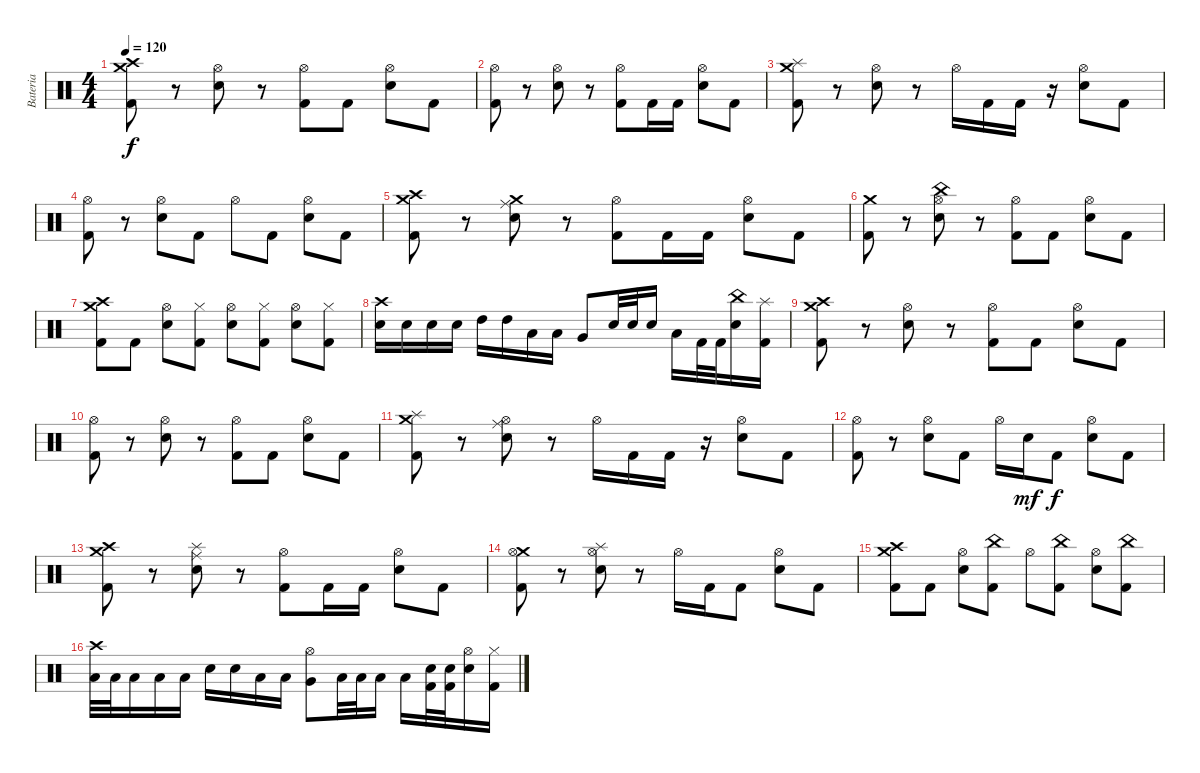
\track ("Bateria" "Bateria") {instrument percussion}
\staff {score}
\articulation defaults
\ts (4 4)
\tempo 120
\clef neutral
\ks c
("Crash medium (hit)" "Crash high (hit)" "Kick (hit) 2").8{dy f} r.8 ("Hi-Hat (open)" "Electric Snare (hit)").8 r.8 ("Hi-Hat (open)" "Kick (hit) 2").8 "Kick (hit) 2".8 ("Hi-Hat (open)" "Electric Snare (hit)").8 "Kick (hit) 2".8 |
("Hi-Hat (open)" "Kick (hit) 2").8 r.8 ("Hi-Hat (open)" "Electric Snare (hit)").8 r.8 ("Hi-Hat (open)" "Kick (hit) 2").8 "Kick (hit) 2".16 "Kick (hit) 2".16 ("Hi-Hat (open)" "Electric Snare (hit)").8 "Kick (hit) 2".8 |
("Crash medium (hit)" "Splash (hit)" "Kick (hit) 2").8 r.8 ("Hi-Hat (open)" "Electric Snare (hit)").8 r.8 "Hi-Hat (open)".16 "Kick (hit) 2".16 "Kick (hit) 2".16 r.16 ("Hi-Hat (open)" "Electric Snare (hit)").8 "Kick (hit) 2".8 |
("Hi-Hat (open)" "Kick (hit) 2").8 r.8 ("Hi-Hat (open)" "Electric Snare (hit)").8 "Kick (hit) 2".8 "Hi-Hat (open)".8 "Kick (hit) 2".8 ("Hi-Hat (open)" "Electric Snare (hit)").8 "Kick (hit) 2".8 |
("Crash medium (hit)" "Crash high (hit)" "Kick (hit) 2").8 r.8 ("Crash medium (hit)" "Ride (middle)" "Electric Snare (hit)").8 r.8 ("Hi-Hat (open)" "Kick (hit) 2").8 "Kick (hit) 2".16 "Kick (hit) 2".16 ("Hi-Hat (open)" "Electric Snare (hit)").8 "Kick (hit) 2".8 |
("Crash medium (hit)" "Kick (hit) 2").8 r.8 ("China (hit)" "Hi-Hat (open)" "Electric Snare (hit)").8 r.8 ("Hi-Hat (open)" "Kick (hit) 2").8 "Kick (hit) 2".8 ("Hi-Hat (open)" "Electric Snare (hit)").8 "Kick (hit) 2".8 |
("Crash medium (hit)" "Crash high (hit)" "Kick (hit) 2").8 "Kick (hit) 2".8 ("Hi-Hat (open)" "Electric Snare (hit)").8 ("Hi-Hat (closed)" "Kick (hit) 2").8 ("Hi-Hat (open)" "Electric Snare (hit)").8 ("Hi-Hat (closed)" "Kick (hit) 2").8 ("Hi-Hat (open)" "Electric Snare (hit)").8 ("Hi-Hat (closed)" "Kick (hit) 2").8 |
("Crash high (hit)" "Electric Snare (hit)").16 "Electric Snare (hit)".16 "Electric Snare (hit)".16 "Electric Snare (hit)".16 "High Tom (hit)".16 "High Tom (hit)".16 "Low Tom (hit)".16 "Low Tom (hit)".16 "Very Low Tom (hit)".8 "Electric Snare (hit)".32 "Electric Snare (hit)".32 "Electric Snare (hit)".16 "Low Floor Tom (hit)".16 "Kick (hit) 2".32 "Kick (hit) 2".32 ("China (hit)" "Electric Snare (hit)").16 ("Splash (hit)" "Kick (hit) 2").16 |
("Crash medium (hit)" "Crash high (hit)" "Kick (hit) 2").8 r.8 ("Hi-Hat (open)" "Electric Snare (hit)").8 r.8 ("Hi-Hat (open)" "Kick (hit) 2").8 "Kick (hit) 2".8 ("Hi-Hat (open)" "Electric Snare (hit)").8 "Kick (hit) 2".8 |
("Hi-Hat (open)" "Kick (hit) 2").8 r.8 ("Hi-Hat (open)" "Electric Snare (hit)").8 r.8 ("Hi-Hat (open)" "Kick (hit) 2").8 "Kick (hit) 2".8 ("Hi-Hat (open)" "Electric Snare (hit)").8 "Kick (hit) 2".8 |
("Crash medium (hit)" "Splash (hit)" "Kick (hit) 2").8 r.8 ("Hi-Hat (open)" "Ride (middle)" "Electric Snare (hit)").8 r.8 "Hi-Hat (open)".16 "Kick (hit) 2".16 "Kick (hit) 2".16 r.16 ("Hi-Hat (open)" "Electric Snare (hit)").8 "Kick (hit) 2".8 |
("Hi-Hat (open)" "Kick (hit) 2").8 r.8 ("Hi-Hat (open)" "Electric Snare (hit)").8 "Kick (hit) 2".8 "Hi-Hat (open)".16 "Electric Snare (hit)".16{dy mf} "Kick (hit) 2".8{dy f} ("Hi-Hat (open)" "Electric Snare (hit)").8 "Kick (hit) 2".8 |
("Crash medium (hit)" "Crash high (hit)" "Kick (hit) 2").8 r.8 ("Splash (hit)" "Ride (middle)" "Electric Snare (hit)").8 r.8 ("Hi-Hat (open)" "Kick (hit) 2").8 "Kick (hit) 2".16 "Kick (hit) 2".16 ("Hi-Hat (open)" "Electric Snare (hit)").8 "Kick (hit) 2".8 |
("Crash medium (hit)" "Hi-Hat (open)" "Kick (hit) 2").8 r.8 ("Hi-Hat (open)" "Splash (hit)" "Electric Snare (hit)").8 r.8 "Hi-Hat (open)".16 "Kick (hit) 2".16 "Kick (hit) 2".8 ("Hi-Hat (open)" "Electric Snare (hit)").8 "Kick (hit) 2".8 |
("Crash medium (hit)" "Crash high (hit)" "Kick (hit) 2").8 "Kick (hit) 2".8 ("Hi-Hat (open)" "Electric Snare (hit)").8 ("China (hit)" "Kick (hit) 2").8 "Hi-Hat (open)".8 ("China (hit)" "Kick (hit) 2").8 ("Hi-Hat (open)" "Electric Snare (hit)").8 ("China (hit)" "Kick (hit) 2").8 |
("Crash high (hit)" "Low Floor Tom (hit)").32 "Low Floor Tom (hit)".32 "Low Floor Tom (hit)".16 "Low Floor Tom (hit)".16 "Low Floor Tom (hit)".16 "Electric Snare (hit)".16 "Electric Snare (hit)".16 "Low Tom (hit)".16 "Low Tom (hit)".16 ("Hi-Hat (open)" "Very Low Tom (hit)").8 "Low Floor Tom (hit)".32 "Low Floor Tom (hit)".32 "Low Floor Tom (hit)".16 "Low Floor Tom (hit)".16 ("Electric Snare (hit)" "Kick (hit) 2").32 ("Electric Snare (hit)" "Kick (hit) 2").32 ("Hi-Hat (open)" "Electric Snare (hit)").16 ("Hi-Hat (closed)" "Kick (hit) 2").16
